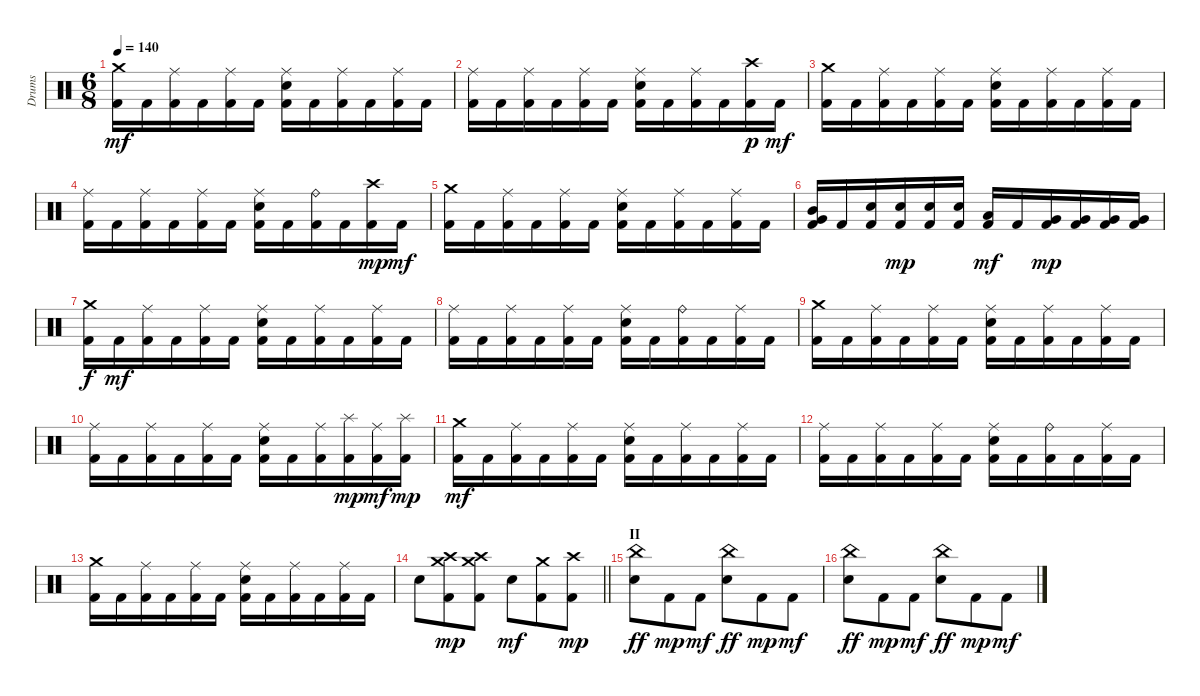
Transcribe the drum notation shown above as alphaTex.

\track ("Drums" "Drums") {instrument percussion}
\staff {score}
\articulation defaults
\ts (6 8)
\tempo 140
\clef neutral
\ks c
("Kick (hit) 2" "Crash medium (hit)").16{dy mf} "Kick (hit) 2".16 ("Kick (hit) 2" "Ride (middle)").16 "Kick (hit) 2".16 ("Kick (hit) 2" "Ride (middle)").16 "Kick (hit) 2".16 ("Kick (hit) 2" "Electric Snare (hit)" "Ride (middle)").16 "Kick (hit) 2".16 ("Kick (hit) 2" "Ride (middle)").16 "Kick (hit) 2".16 ("Kick (hit) 2" "Ride (middle)").16 "Kick (hit) 2".16 |
("Kick (hit) 2" "Ride (middle)").16 "Kick (hit) 2".16 ("Kick (hit) 2" "Ride (middle)").16 "Kick (hit) 2".16 ("Kick (hit) 2" "Ride (middle)").16 "Kick (hit) 2".16 ("Kick (hit) 2" "Electric Snare (hit)" "Ride (middle)").16 "Kick (hit) 2".16 ("Kick (hit) 2" "Ride (middle)").16 "Kick (hit) 2".16 ("Kick (hit) 2" "Crash high (hit)").16{dy p} "Kick (hit) 2".16{dy mf} |
("Kick (hit) 2" "Crash medium (hit)").16 "Kick (hit) 2".16 ("Kick (hit) 2" "Ride (middle)").16 "Kick (hit) 2".16 ("Kick (hit) 2" "Ride (middle)").16 "Kick (hit) 2".16 ("Kick (hit) 2" "Electric Snare (hit)" "Ride (middle)").16 "Kick (hit) 2".16 ("Kick (hit) 2" "Ride (middle)").16 "Kick (hit) 2".16 ("Kick (hit) 2" "Ride (middle)").16 "Kick (hit) 2".16 |
("Kick (hit) 2" "Ride (middle)").16 "Kick (hit) 2".16 ("Kick (hit) 2" "Ride (middle)").16 "Kick (hit) 2".16 ("Kick (hit) 2" "Ride (middle)").16 "Kick (hit) 2".16 ("Kick (hit) 2" "Electric Snare (hit)" "Ride (middle)").16 "Kick (hit) 2".16 ("Kick (hit) 2" "Ride (bell)").16 "Kick (hit) 2".16 ("Kick (hit) 2" "Crash high (hit)").16{dy mp} "Kick (hit) 2".16{dy mf} |
("Kick (hit) 2" "Crash medium (hit)").16 "Kick (hit) 2".16 ("Kick (hit) 2" "Ride (middle)").16 "Kick (hit) 2".16 ("Kick (hit) 2" "Ride (middle)").16 "Kick (hit) 2".16 ("Kick (hit) 2" "Electric Snare (hit)" "Ride (middle)").16 "Kick (hit) 2".16 ("Kick (hit) 2" "Ride (middle)").16 "Kick (hit) 2".16 ("Kick (hit) 2" "Ride (middle)").16 "Kick (hit) 2".16 |
("Kick (hit) 2" "Very Low Tom (hit)" "Mid Tom (hit)").16 "Kick (hit) 2".16 ("Kick (hit) 2" "Electric Snare (hit)").16 ("Kick (hit) 2" "Electric Snare (hit)").16{dy mp} ("Kick (hit) 2" "Electric Snare (hit)").16 ("Kick (hit) 2" "Electric Snare (hit)").16 ("Kick (hit) 2" "Low Tom (hit)").16{dy mf} "Kick (hit) 2".16 ("Kick (hit) 2" "Very Low Tom (hit)").16{dy mp} ("Kick (hit) 2" "Very Low Tom (hit)").16 ("Kick (hit) 2" "Very Low Tom (hit)").16 ("Kick (hit) 2" "Very Low Tom (hit)").16 |
("Kick (hit) 2" "Crash medium (hit)").16{dy f} "Kick (hit) 2".16{dy mf} ("Kick (hit) 2" "Ride (middle)").16 "Kick (hit) 2".16 ("Kick (hit) 2" "Ride (middle)").16 "Kick (hit) 2".16 ("Kick (hit) 2" "Electric Snare (hit)" "Ride (middle)").16 "Kick (hit) 2".16 ("Kick (hit) 2" "Ride (middle)").16 "Kick (hit) 2".16 ("Kick (hit) 2" "Ride (middle)").16 "Kick (hit) 2".16 |
("Kick (hit) 2" "Ride (middle)").16 "Kick (hit) 2".16 ("Kick (hit) 2" "Ride (middle)").16 "Kick (hit) 2".16 ("Kick (hit) 2" "Ride (middle)").16 "Kick (hit) 2".16 ("Kick (hit) 2" "Electric Snare (hit)" "Ride (middle)").16 "Kick (hit) 2".16 ("Kick (hit) 2" "Ride (bell)").16 "Kick (hit) 2".16 ("Kick (hit) 2" "Ride (middle)").16 "Kick (hit) 2".16 |
("Kick (hit) 2" "Crash medium (hit)").16 "Kick (hit) 2".16 ("Kick (hit) 2" "Ride (middle)").16 "Kick (hit) 2".16 ("Kick (hit) 2" "Ride (middle)").16 "Kick (hit) 2".16 ("Kick (hit) 2" "Electric Snare (hit)" "Ride (middle)").16 "Kick (hit) 2".16 ("Kick (hit) 2" "Ride (middle)").16 "Kick (hit) 2".16 ("Kick (hit) 2" "Ride (middle)").16 "Kick (hit) 2".16 |
("Kick (hit) 2" "Ride (middle)").16 "Kick (hit) 2".16 ("Kick (hit) 2" "Ride (middle)").16 "Kick (hit) 2".16 ("Kick (hit) 2" "Ride (middle)").16 "Kick (hit) 2".16 ("Kick (hit) 2" "Electric Snare (hit)" "Ride (middle)").16 "Kick (hit) 2".16 ("Kick (hit) 2" "Ride (middle)").16 ("Kick (hit) 2" "Splash (hit)").16{dy mp} ("Kick (hit) 2" "Ride (middle)").16{dy mf} ("Kick (hit) 2" "Splash (hit)").16{dy mp} |
("Kick (hit) 2" "Crash medium (hit)").16{dy mf} "Kick (hit) 2".16 ("Kick (hit) 2" "Ride (middle)").16 "Kick (hit) 2".16 ("Kick (hit) 2" "Ride (middle)").16 "Kick (hit) 2".16 ("Kick (hit) 2" "Electric Snare (hit)" "Ride (middle)").16 "Kick (hit) 2".16 ("Kick (hit) 2" "Ride (middle)").16 "Kick (hit) 2".16 ("Kick (hit) 2" "Ride (middle)").16 "Kick (hit) 2".16 |
("Kick (hit) 2" "Ride (middle)").16 "Kick (hit) 2".16 ("Kick (hit) 2" "Ride (middle)").16 "Kick (hit) 2".16 ("Kick (hit) 2" "Ride (middle)").16 "Kick (hit) 2".16 ("Kick (hit) 2" "Electric Snare (hit)" "Ride (middle)").16 "Kick (hit) 2".16 ("Kick (hit) 2" "Ride (bell)").16 "Kick (hit) 2".16 ("Kick (hit) 2" "Ride (middle)").16 "Kick (hit) 2".16 |
("Kick (hit) 2" "Crash medium (hit)").16 "Kick (hit) 2".16 ("Kick (hit) 2" "Ride (middle)").16 "Kick (hit) 2".16 ("Kick (hit) 2" "Ride (middle)").16 "Kick (hit) 2".16 ("Kick (hit) 2" "Electric Snare (hit)" "Ride (middle)").16 "Kick (hit) 2".16 ("Kick (hit) 2" "Ride (middle)").16 "Kick (hit) 2".16 ("Kick (hit) 2" "Ride (middle)").16 "Kick (hit) 2".16 |
\barLineRight lightlight "Electric Snare (hit)".8
("Kick (hit) 2" "Crash high (hit)" "Crash medium (hit)").8{dy mp} ("Kick (hit) 2" "Crash high (hit)" "Crash medium (hit)").8 "Electric Snare (hit)".8{dy mf} ("Kick (hit) 2" "Crash medium (hit)").8 ("Kick (hit) 2" "Crash high (hit)").8{dy mp} |
\section ("" "II")
("Electric Snare (hit)" "China (hit)").8{dy ff} "Kick (hit) 2".8{dy mp} "Kick (hit) 2".8{dy mf} ("Electric Snare (hit)" "China (hit)").8{dy ff} "Kick (hit) 2".8{dy mp} "Kick (hit) 2".8{dy mf} |
("Electric Snare (hit)" "China (hit)").8{dy ff} "Kick (hit) 2".8{dy mp} "Kick (hit) 2".8{dy mf} ("Electric Snare (hit)" "China (hit)").8{dy ff} "Kick (hit) 2".8{dy mp} "Kick (hit) 2".8{dy mf}
